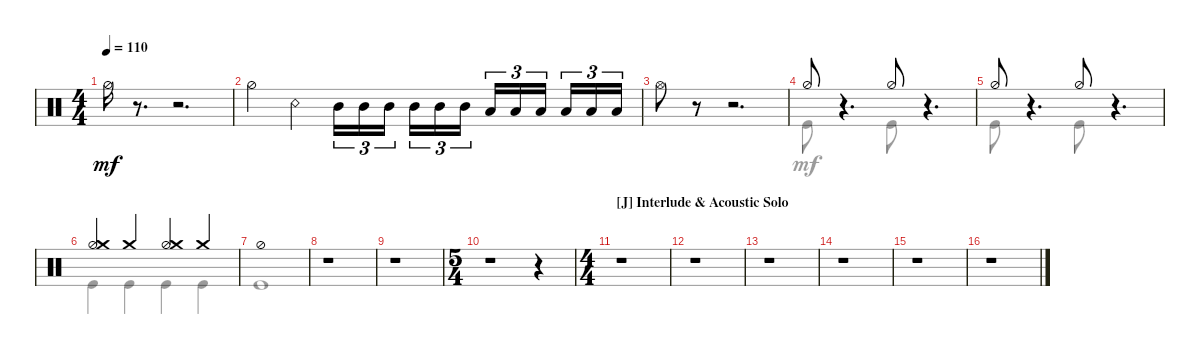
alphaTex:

\defaultSystemsLayout 4
\bracketExtendMode groupsimilarinstruments
\singleTrackTrackNamePolicy hidden
\multiTrackTrackNamePolicy hidden
\firstSystemTrackNameOrientation horizontal
\otherSystemsTrackNameOrientation horizontal
\track ("Максим Удалов" "Drums") {instrument percussion}
\staff {score}
\articulation defaults
\voice
\ts (4 4)
\tempo 110
\clef neutral
\scale
1.02648
\ks c "Hi-Hat (half)".16{dy mf}
r.8{d} r.2{d} |
\scale
0.973518 "Hi-Hat (half)".4 "Snare (rim shot)".4 "Mid Tom (hit)".16{tu (3 2)} "Mid Tom (hit)".16{tu (3 2)} "Mid Tom (hit)".16{tu (3 2)} "Mid Tom (hit)".16{tu (3 2)} "Mid Tom (hit)".16{tu (3 2)} "Mid Tom (hit)".16{tu (3 2)} "Low Tom (hit)".16{tu (3 2)} "Low Tom (hit)".16{tu (3 2)} "Low Tom (hit)".16{tu (3 2)} "Low Tom (hit)".16{tu (3 2)} "Low Tom (hit)".16{tu (3 2)} "Low Tom (hit)".16{tu (3 2)} |
\scale
1.02648 "Hi-Hat (open)".8 r.8 r.2{d} |
\scale
0.973518 "Hi-Hat (half)".8 r.4{d} "Hi-Hat (half)".8 r.4{d} |
\scale
1.02648 "Hi-Hat (half)".8 r.4{d} "Hi-Hat (half)".8 r.4{d} |
\scale
0.973518 ("Hi-Hat (half)" "Crash medium (hit)").4 "Crash medium (hit)".4 ("Hi-Hat (half)" "Crash medium (hit)").4 "Crash medium (hit)".4 |
\scale
1.02648 "Hi-Hat (half)".1 |
\scale
0.973518 r.1 |
\scale
1.02648 r.1 |
\ts (5 4)
\scale
0.973518 r.1 r.4 |
\ts (4 4)
\section ("J" "Interlude & Acoustic Solo")
\scale
1.05675 r.1 |
\scale
0.943253 r.1 |
\scale
1.02648 r.1 |
\scale
0.973518 r.1 |
\scale
1.02648 r.1 |
\tempo (85 hide)
\scale
0.973518 r.1
\voice
\clef neutral
\ottava regular
\simile none
\scale
1.02648
\ks c
|
\scale
0.973518 |
\scale
1.02648 |
\scale
0.973518 "Kick (hit)".8 r.4{d} "Kick (hit)".8 r.4{d} |
\scale
1.02648 "Kick (hit)".8 r.4{d} "Kick (hit)".8 r.4{d} |
\scale
0.973518 "Kick (hit)".4 "Kick (hit)".4 "Kick (hit)".4 "Kick (hit)".4 |
\scale
1.02648 "Kick (hit)".1 |
\scale
0.973518 |
\scale
1.02648 |
\scale
0.973518 |
\scale
1.05675 |
\scale
0.943253 |
\scale
1.02648 |
\scale
0.973518 |
\scale
1.02648 |
\scale
0.973518
